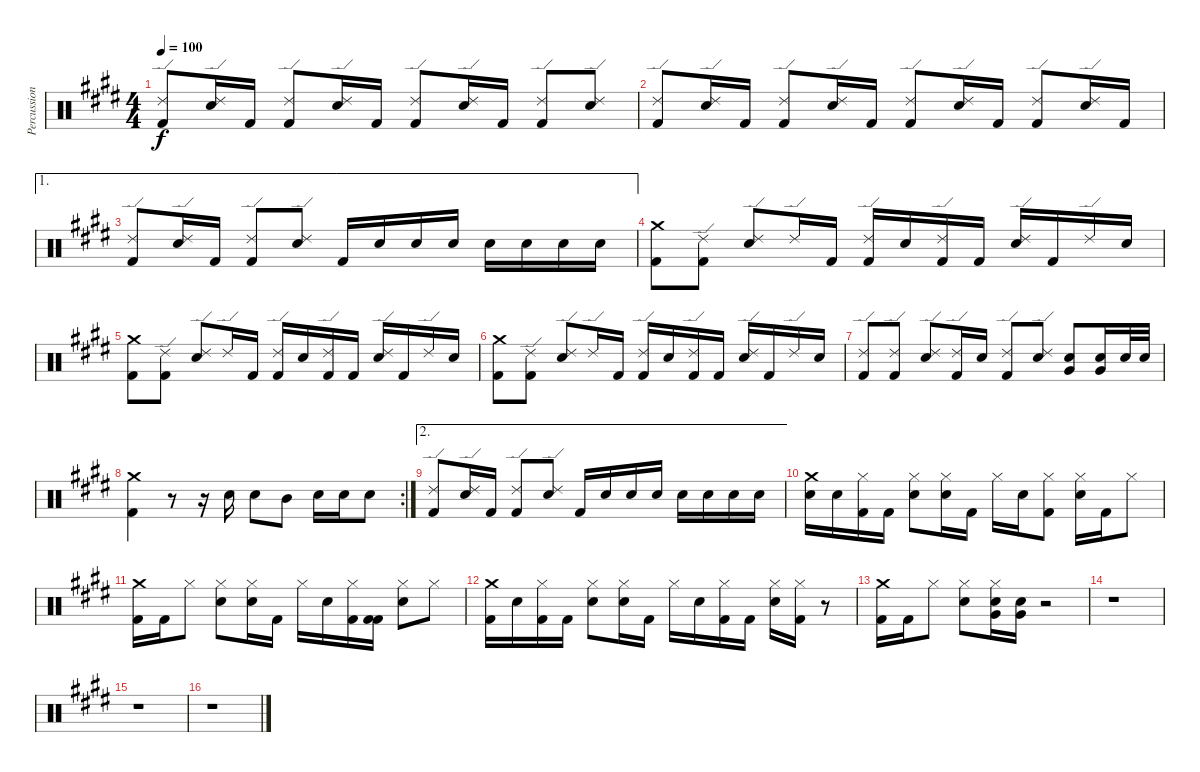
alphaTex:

\track ("Percussion" "Percussion") {instrument percussion}
\staff {score}
\articulation defaults
\ts (4 4)
\tempo 100
\clef neutral
\ks e
("Ride (edge) 2" "Kick (hit) 2").8{dy f} ("Ride (edge) 2" "Snare (hit) 2").16 "Kick (hit) 2".16 ("Ride (edge) 2" "Kick (hit) 2").8 ("Ride (edge) 2" "Snare (hit) 2").16 "Kick (hit) 2".16 ("Ride (edge) 2" "Kick (hit) 2").8 ("Ride (edge) 2" "Snare (hit) 2").16 "Kick (hit) 2".16 ("Ride (edge) 2" "Kick (hit) 2").8 ("Ride (edge) 2" "Snare (hit) 2").8 |
("Ride (edge) 2" "Kick (hit) 2").8 ("Ride (edge) 2" "Snare (hit) 2").16 "Kick (hit) 2".16 ("Ride (edge) 2" "Kick (hit) 2").8 ("Ride (edge) 2" "Snare (hit) 2").16 "Kick (hit) 2".16 ("Ride (edge) 2" "Kick (hit) 2").8 ("Ride (edge) 2" "Snare (hit) 2").16 "Kick (hit) 2".16 ("Ride (edge) 2" "Kick (hit) 2").8 ("Ride (edge) 2" "Snare (hit) 2").16 "Kick (hit) 2".16 |
\ae 1
("Ride (edge) 2" "Kick (hit) 2").8 ("Ride (edge) 2" "Snare (hit) 2").16 "Kick (hit) 2".16 ("Ride (edge) 2" "Kick (hit) 2").8 ("Ride (edge) 2" "Snare (hit) 2").8 "Kick (hit) 2".16 "Snare (hit) 2".16 "Snare (hit) 2".16 "Snare (hit) 2".16 "Snare (hit) 2".16 "Snare (hit) 2".16 "Snare (hit) 2".16 "Snare (hit) 2".16 |
("Crash medium (hit)" "Kick (hit) 2").8 ("Ride (edge) 2" "Kick (hit) 2").8 ("Ride (edge) 2" "Snare (hit) 2").8 "Ride (edge) 2".16 "Kick (hit) 2".16 ("Ride (edge) 2" "Kick (hit) 2").16 "Snare (hit) 2".16 ("Ride (edge) 2" "Kick (hit) 2").16 "Kick (hit) 2".16 ("Ride (edge) 2" "Snare (hit) 2").16 "Kick (hit) 2".16 "Ride (edge) 2".16 "Snare (hit) 2".16 |
("Crash medium (hit)" "Kick (hit) 2").8 ("Ride (edge) 2" "Kick (hit) 2").8 ("Ride (edge) 2" "Snare (hit) 2").8 "Ride (edge) 2".16 "Kick (hit) 2".16 ("Ride (edge) 2" "Kick (hit) 2").16 "Snare (hit) 2".16 ("Ride (edge) 2" "Kick (hit) 2").16 "Kick (hit) 2".16 ("Ride (edge) 2" "Snare (hit) 2").16 "Kick (hit) 2".16 "Ride (edge) 2".16 "Snare (hit) 2".16 |
("Crash medium (hit)" "Kick (hit) 2").8 ("Ride (edge) 2" "Kick (hit) 2").8 ("Ride (edge) 2" "Snare (hit) 2").8 "Ride (edge) 2".16 "Kick (hit) 2".16 ("Ride (edge) 2" "Kick (hit) 2").16 "Snare (hit) 2".16 ("Ride (edge) 2" "Kick (hit) 2").16 "Kick (hit) 2".16 ("Ride (edge) 2" "Snare (hit) 2").16 "Kick (hit) 2".16 "Ride (edge) 2".16 "Snare (hit) 2".16 |
("Ride (edge) 2" "Kick (hit) 2").8 ("Ride (edge) 2" "Kick (hit) 2").8 ("Ride (edge) 2" "Snare (hit) 2").8 ("Ride (edge) 2" "Kick (hit) 2").16 "Snare (hit) 2".16 ("Ride (edge) 2" "Kick (hit) 2").8 ("Ride (edge) 2" "Snare (hit) 2").8 ("Snare (hit) 2" "Very Low Tom (hit)").8 ("Snare (hit) 2" "Very Low Tom (hit)").16 "Snare (hit) 2".32 "Snare (hit) 2".32 |
\rc 2
("Crash medium (hit)" "Kick (hit) 2").4 r.8 r.16 "Snare (hit) 2".16 "Snare (hit) 2".8 "Mid Tom (hit)".8 "Snare (hit) 2".16 "Snare (hit) 2".16 "Snare (hit) 2".8 |
\ae 2
("Ride (edge) 2" "Kick (hit) 2").8 ("Ride (edge) 2" "Snare (hit) 2").16 "Kick (hit) 2".16 ("Ride (edge) 2" "Kick (hit) 2").8 ("Ride (edge) 2" "Snare (hit) 2").8 "Kick (hit) 2".16 "Snare (hit) 2".16 "Snare (hit) 2".16 "Snare (hit) 2".16 "Snare (hit) 2".16 "Snare (hit) 2".16 "Snare (hit) 2".16 "Snare (hit) 2".16 |
("Crash medium (hit)" "Snare (hit) 2").16 "Snare (hit) 2".16 ("Hi-Hat (closed)" "Kick (hit) 2").16 "Kick (hit) 2".16 ("Hi-Hat (closed)" "Snare (hit) 2").8 ("Hi-Hat (closed)" "Snare (hit) 2").16 "Kick (hit) 2".16 "Hi-Hat (closed)".16 "Snare (hit) 2".16 ("Hi-Hat (closed)" "Kick (hit) 2").8 ("Hi-Hat (closed)" "Snare (hit) 2").16 "Kick (hit) 2".16 "Hi-Hat (closed)".8 |
("Crash medium (hit)" "Kick (hit) 2").16 "Kick (hit) 2".16 "Hi-Hat (closed)".8 ("Hi-Hat (closed)" "Snare (hit) 2").8 ("Hi-Hat (closed)" "Snare (hit) 2").16 "Kick (hit) 2".16 "Hi-Hat (closed)".16 "Snare (hit) 2".16 ("Hi-Hat (closed)" "Kick (hit) 2").16 ("Kick (hit) 2" "Kick (hit) 2").16 ("Hi-Hat (closed)" "Snare (hit) 2").8 "Hi-Hat (closed)".8 |
("Crash medium (hit)" "Kick (hit) 2").16 "Snare (hit) 2".16 ("Hi-Hat (closed)" "Kick (hit) 2").16 "Kick (hit) 2".16 ("Hi-Hat (closed)" "Snare (hit) 2").8 ("Hi-Hat (closed)" "Snare (hit) 2").16 "Kick (hit) 2".16 "Hi-Hat (closed)".16 "Snare (hit) 2".16 ("Hi-Hat (closed)" "Kick (hit) 2").16 "Kick (hit) 2".16 ("Hi-Hat (closed)" "Snare (hit) 2").16 ("Hi-Hat (closed)" "Kick (hit) 2").16 r.8 |
("Crash medium (hit)" "Kick (hit) 2").16 "Kick (hit) 2".16 "Hi-Hat (closed)".8 ("Hi-Hat (closed)" "Snare (hit) 2").8 ("Hi-Hat (closed)" "Snare (hit) 2" "Very Low Tom (hit)").16 ("Snare (hit) 2" "Very Low Tom (hit)").16 r.2 |
r.1 |
r.1 |
r.1
